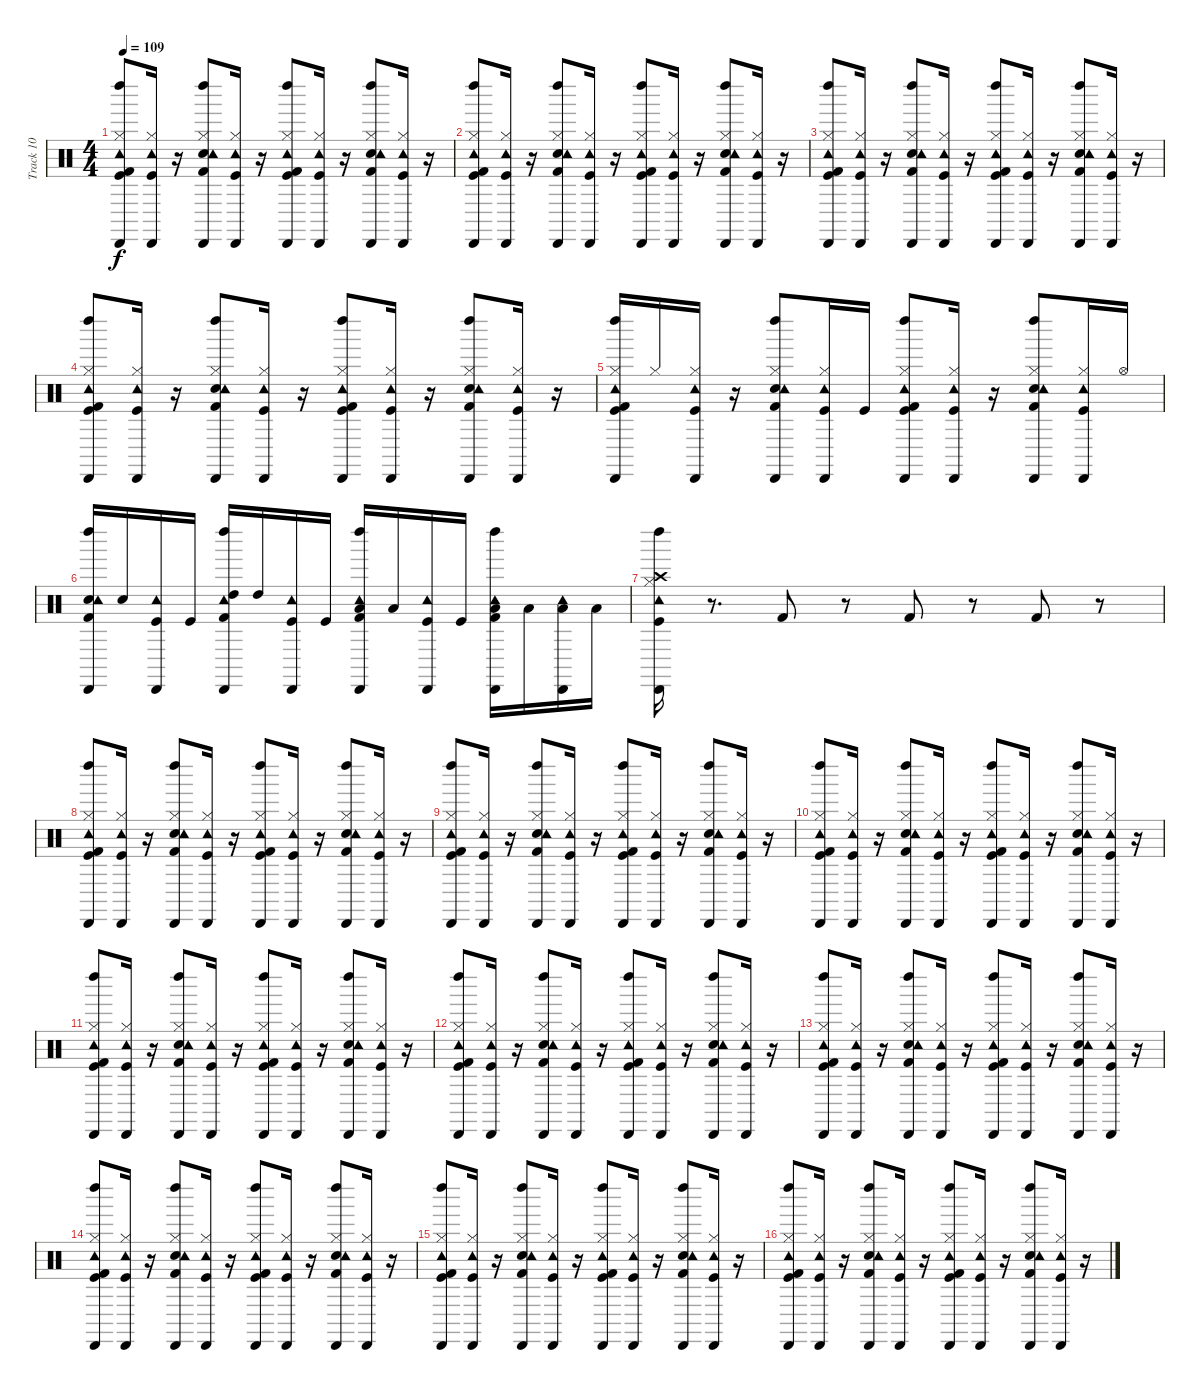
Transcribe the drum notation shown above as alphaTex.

\track ("Track 10" "Track 10") {instrument percussion}
\staff {score}
\articulation defaults
\ts (4 4)
\tempo 109
\clef neutral
\ks c
("Kick (hit)" "Hi-Hat (closed)" "Tambourine (hit)" "Left Maraca (hit)" "Cabasa (hit)" "Kick (hit) 2").8{dy f} ("Kick (hit)" "Hi-Hat (closed)" "Tambourine (hit)" "Cabasa (hit)").16 r.16 ("Snare (hit) 2" "Hi-Hat (closed)" "Tambourine (hit)" "Left Maraca (hit)" "Cabasa (hit)" "Kick (hit) 2").8 ("Kick (hit)" "Hi-Hat (closed)" "Tambourine (hit)" "Cabasa (hit)").16 r.16 ("Kick (hit)" "Hi-Hat (closed)" "Tambourine (hit)" "Left Maraca (hit)" "Cabasa (hit)" "Kick (hit) 2").8 ("Kick (hit)" "Hi-Hat (closed)" "Tambourine (hit)" "Cabasa (hit)").16 r.16 ("Snare (hit) 2" "Hi-Hat (closed)" "Tambourine (hit)" "Left Maraca (hit)" "Cabasa (hit)" "Kick (hit) 2").8 ("Kick (hit)" "Hi-Hat (closed)" "Tambourine (hit)" "Cabasa (hit)").16 r.16 |
("Kick (hit)" "Hi-Hat (closed)" "Tambourine (hit)" "Left Maraca (hit)" "Cabasa (hit)" "Kick (hit) 2").8 ("Kick (hit)" "Hi-Hat (closed)" "Tambourine (hit)" "Cabasa (hit)").16 r.16 ("Snare (hit) 2" "Hi-Hat (closed)" "Tambourine (hit)" "Left Maraca (hit)" "Cabasa (hit)" "Kick (hit) 2").8 ("Kick (hit)" "Hi-Hat (closed)" "Tambourine (hit)" "Cabasa (hit)").16 r.16 ("Kick (hit)" "Hi-Hat (closed)" "Tambourine (hit)" "Left Maraca (hit)" "Cabasa (hit)" "Kick (hit) 2").8 ("Kick (hit)" "Hi-Hat (closed)" "Tambourine (hit)" "Cabasa (hit)").16 r.16 ("Snare (hit) 2" "Hi-Hat (closed)" "Tambourine (hit)" "Left Maraca (hit)" "Cabasa (hit)" "Kick (hit) 2").8 ("Kick (hit)" "Hi-Hat (closed)" "Tambourine (hit)" "Cabasa (hit)").16 r.16 |
("Kick (hit)" "Hi-Hat (closed)" "Tambourine (hit)" "Left Maraca (hit)" "Cabasa (hit)" "Kick (hit) 2").8 ("Kick (hit)" "Hi-Hat (closed)" "Tambourine (hit)" "Cabasa (hit)").16 r.16 ("Snare (hit) 2" "Hi-Hat (closed)" "Tambourine (hit)" "Left Maraca (hit)" "Cabasa (hit)" "Kick (hit) 2").8 ("Kick (hit)" "Hi-Hat (closed)" "Tambourine (hit)" "Cabasa (hit)").16 r.16 ("Kick (hit)" "Hi-Hat (closed)" "Tambourine (hit)" "Left Maraca (hit)" "Cabasa (hit)" "Kick (hit) 2").8 ("Kick (hit)" "Hi-Hat (closed)" "Tambourine (hit)" "Cabasa (hit)").16 r.16 ("Snare (hit) 2" "Hi-Hat (closed)" "Tambourine (hit)" "Left Maraca (hit)" "Cabasa (hit)" "Kick (hit) 2").8 ("Kick (hit)" "Hi-Hat (closed)" "Tambourine (hit)" "Cabasa (hit)").16 r.16 |
("Kick (hit)" "Hi-Hat (closed)" "Tambourine (hit)" "Left Maraca (hit)" "Cabasa (hit)" "Kick (hit) 2").8 ("Kick (hit)" "Hi-Hat (closed)" "Tambourine (hit)" "Cabasa (hit)").16 r.16 ("Snare (hit) 2" "Hi-Hat (closed)" "Tambourine (hit)" "Left Maraca (hit)" "Cabasa (hit)" "Kick (hit) 2").8 ("Kick (hit)" "Hi-Hat (closed)" "Tambourine (hit)" "Cabasa (hit)").16 r.16 ("Kick (hit)" "Hi-Hat (closed)" "Tambourine (hit)" "Left Maraca (hit)" "Cabasa (hit)" "Kick (hit) 2").8 ("Kick (hit)" "Hi-Hat (closed)" "Tambourine (hit)" "Cabasa (hit)").16 r.16 ("Snare (hit) 2" "Hi-Hat (closed)" "Tambourine (hit)" "Left Maraca (hit)" "Cabasa (hit)" "Kick (hit) 2").8 ("Kick (hit)" "Hi-Hat (closed)" "Tambourine (hit)" "Cabasa (hit)").16 r.16 |
("Kick (hit)" "Hi-Hat (closed)" "Tambourine (hit)" "Left Maraca (hit)" "Cabasa (hit)" "Kick (hit) 2").16 "Hi-Hat (closed)".16 ("Kick (hit)" "Hi-Hat (closed)" "Tambourine (hit)" "Cabasa (hit)").16 r.16 ("Snare (hit) 2" "Hi-Hat (closed)" "Tambourine (hit)" "Left Maraca (hit)" "Cabasa (hit)" "Kick (hit) 2").8 ("Kick (hit)" "Hi-Hat (closed)" "Tambourine (hit)" "Cabasa (hit)").16 "Kick (hit)".16 ("Kick (hit)" "Hi-Hat (closed)" "Tambourine (hit)" "Left Maraca (hit)" "Cabasa (hit)" "Kick (hit) 2").8 ("Kick (hit)" "Hi-Hat (closed)" "Tambourine (hit)" "Cabasa (hit)").16 r.16 ("Snare (hit) 2" "Hi-Hat (closed)" "Tambourine (hit)" "Left Maraca (hit)" "Cabasa (hit)" "Kick (hit) 2").8 ("Kick (hit)" "Hi-Hat (closed)" "Tambourine (hit)" "Cabasa (hit)").16 "Hi-Hat (open)".16 |
("Snare (hit) 2" "Tambourine (hit)" "Left Maraca (hit)" "Cabasa (hit)" "Kick (hit) 2").16 "Snare (hit) 2".16 ("Kick (hit)" "Tambourine (hit)" "Cabasa (hit)").16 "Kick (hit)".16 ("High Tom (hit)" "Tambourine (hit)" "Left Maraca (hit)" "Cabasa (hit)" "Kick (hit) 2").16 "High Tom (hit)".16 ("Kick (hit)" "Tambourine (hit)" "Cabasa (hit)").16 "Kick (hit)".16 ("Low Tom (hit)" "Tambourine (hit)" "Left Maraca (hit)" "Cabasa (hit)" "Kick (hit) 2").16 "Low Tom (hit)".16 ("Kick (hit)" "Tambourine (hit)" "Cabasa (hit)").16 "Kick (hit)".16 ("Low Floor Tom (hit)" "Tambourine (hit)" "Left Maraca (hit)" "Cabasa (hit)" "Kick (hit) 2").16 "Low Floor Tom (hit)".16 ("Low Floor Tom (hit)" "Tambourine (hit)" "Cabasa (hit)").16 "Low Floor Tom (hit)".16 |
("Kick (hit)" "Hi-Hat (closed)" "Crash high (hit)" "Tambourine (hit)" "Left Maraca (hit)" "Cabasa (hit)").16 r.8{d} "Kick (hit) 2".8 r.8 "Kick (hit) 2".8 r.8 "Kick (hit) 2".8 r.8 |
("Kick (hit)" "Hi-Hat (closed)" "Tambourine (hit)" "Left Maraca (hit)" "Cabasa (hit)" "Kick (hit) 2").8 ("Kick (hit)" "Hi-Hat (closed)" "Tambourine (hit)" "Cabasa (hit)").16 r.16 ("Snare (hit) 2" "Hi-Hat (closed)" "Tambourine (hit)" "Left Maraca (hit)" "Cabasa (hit)" "Kick (hit) 2").8 ("Kick (hit)" "Hi-Hat (closed)" "Tambourine (hit)" "Cabasa (hit)").16 r.16 ("Kick (hit)" "Hi-Hat (closed)" "Tambourine (hit)" "Left Maraca (hit)" "Cabasa (hit)" "Kick (hit) 2").8 ("Kick (hit)" "Hi-Hat (closed)" "Tambourine (hit)" "Cabasa (hit)").16 r.16 ("Snare (hit) 2" "Hi-Hat (closed)" "Tambourine (hit)" "Left Maraca (hit)" "Cabasa (hit)" "Kick (hit) 2").8 ("Kick (hit)" "Hi-Hat (closed)" "Tambourine (hit)" "Cabasa (hit)").16 r.16 |
("Kick (hit)" "Hi-Hat (closed)" "Tambourine (hit)" "Left Maraca (hit)" "Cabasa (hit)" "Kick (hit) 2").8 ("Kick (hit)" "Hi-Hat (closed)" "Tambourine (hit)" "Cabasa (hit)").16 r.16 ("Snare (hit) 2" "Hi-Hat (closed)" "Tambourine (hit)" "Left Maraca (hit)" "Cabasa (hit)" "Kick (hit) 2").8 ("Kick (hit)" "Hi-Hat (closed)" "Tambourine (hit)" "Cabasa (hit)").16 r.16 ("Kick (hit)" "Hi-Hat (closed)" "Tambourine (hit)" "Left Maraca (hit)" "Cabasa (hit)" "Kick (hit) 2").8 ("Kick (hit)" "Hi-Hat (closed)" "Tambourine (hit)" "Cabasa (hit)").16 r.16 ("Snare (hit) 2" "Hi-Hat (closed)" "Tambourine (hit)" "Left Maraca (hit)" "Cabasa (hit)" "Kick (hit) 2").8 ("Kick (hit)" "Hi-Hat (closed)" "Tambourine (hit)" "Cabasa (hit)").16 r.16 |
("Kick (hit)" "Hi-Hat (closed)" "Tambourine (hit)" "Left Maraca (hit)" "Cabasa (hit)" "Kick (hit) 2").8 ("Kick (hit)" "Hi-Hat (closed)" "Tambourine (hit)" "Cabasa (hit)").16 r.16 ("Snare (hit) 2" "Hi-Hat (closed)" "Tambourine (hit)" "Left Maraca (hit)" "Cabasa (hit)" "Kick (hit) 2").8 ("Kick (hit)" "Hi-Hat (closed)" "Tambourine (hit)" "Cabasa (hit)").16 r.16 ("Kick (hit)" "Hi-Hat (closed)" "Tambourine (hit)" "Left Maraca (hit)" "Cabasa (hit)" "Kick (hit) 2").8 ("Kick (hit)" "Hi-Hat (closed)" "Tambourine (hit)" "Cabasa (hit)").16 r.16 ("Snare (hit) 2" "Hi-Hat (closed)" "Tambourine (hit)" "Left Maraca (hit)" "Cabasa (hit)" "Kick (hit) 2").8 ("Kick (hit)" "Hi-Hat (closed)" "Tambourine (hit)" "Cabasa (hit)").16 r.16 |
("Kick (hit)" "Hi-Hat (closed)" "Tambourine (hit)" "Left Maraca (hit)" "Cabasa (hit)" "Kick (hit) 2").8 ("Kick (hit)" "Hi-Hat (closed)" "Tambourine (hit)" "Cabasa (hit)").16 r.16 ("Snare (hit) 2" "Hi-Hat (closed)" "Tambourine (hit)" "Left Maraca (hit)" "Cabasa (hit)" "Kick (hit) 2").8 ("Kick (hit)" "Hi-Hat (closed)" "Tambourine (hit)" "Cabasa (hit)").16 r.16 ("Kick (hit)" "Hi-Hat (closed)" "Tambourine (hit)" "Left Maraca (hit)" "Cabasa (hit)" "Kick (hit) 2").8 ("Kick (hit)" "Hi-Hat (closed)" "Tambourine (hit)" "Cabasa (hit)").16 r.16 ("Snare (hit) 2" "Hi-Hat (closed)" "Tambourine (hit)" "Left Maraca (hit)" "Cabasa (hit)" "Kick (hit) 2").8 ("Kick (hit)" "Hi-Hat (closed)" "Tambourine (hit)" "Cabasa (hit)").16 r.16 |
("Kick (hit)" "Hi-Hat (closed)" "Tambourine (hit)" "Left Maraca (hit)" "Cabasa (hit)" "Kick (hit) 2").8 ("Kick (hit)" "Hi-Hat (closed)" "Tambourine (hit)" "Cabasa (hit)").16 r.16 ("Snare (hit) 2" "Hi-Hat (closed)" "Tambourine (hit)" "Left Maraca (hit)" "Cabasa (hit)" "Kick (hit) 2").8 ("Kick (hit)" "Hi-Hat (closed)" "Tambourine (hit)" "Cabasa (hit)").16 r.16 ("Kick (hit)" "Hi-Hat (closed)" "Tambourine (hit)" "Left Maraca (hit)" "Cabasa (hit)" "Kick (hit) 2").8 ("Kick (hit)" "Hi-Hat (closed)" "Tambourine (hit)" "Cabasa (hit)").16 r.16 ("Snare (hit) 2" "Hi-Hat (closed)" "Tambourine (hit)" "Left Maraca (hit)" "Cabasa (hit)" "Kick (hit) 2").8 ("Kick (hit)" "Hi-Hat (closed)" "Tambourine (hit)" "Cabasa (hit)").16 r.16 |
("Kick (hit)" "Hi-Hat (closed)" "Tambourine (hit)" "Left Maraca (hit)" "Cabasa (hit)" "Kick (hit) 2").8 ("Kick (hit)" "Hi-Hat (closed)" "Tambourine (hit)" "Cabasa (hit)").16 r.16 ("Snare (hit) 2" "Hi-Hat (closed)" "Tambourine (hit)" "Left Maraca (hit)" "Cabasa (hit)" "Kick (hit) 2").8 ("Kick (hit)" "Hi-Hat (closed)" "Tambourine (hit)" "Cabasa (hit)").16 r.16 ("Kick (hit)" "Hi-Hat (closed)" "Tambourine (hit)" "Left Maraca (hit)" "Cabasa (hit)" "Kick (hit) 2").8 ("Kick (hit)" "Hi-Hat (closed)" "Tambourine (hit)" "Cabasa (hit)").16 r.16 ("Snare (hit) 2" "Hi-Hat (closed)" "Tambourine (hit)" "Left Maraca (hit)" "Cabasa (hit)" "Kick (hit) 2").8 ("Kick (hit)" "Hi-Hat (closed)" "Tambourine (hit)" "Cabasa (hit)").16 r.16 |
("Kick (hit)" "Hi-Hat (closed)" "Tambourine (hit)" "Left Maraca (hit)" "Cabasa (hit)" "Kick (hit) 2").8 ("Kick (hit)" "Hi-Hat (closed)" "Tambourine (hit)" "Cabasa (hit)").16 r.16 ("Snare (hit) 2" "Hi-Hat (closed)" "Tambourine (hit)" "Left Maraca (hit)" "Cabasa (hit)" "Kick (hit) 2").8 ("Kick (hit)" "Hi-Hat (closed)" "Tambourine (hit)" "Cabasa (hit)").16 r.16 ("Kick (hit)" "Hi-Hat (closed)" "Tambourine (hit)" "Left Maraca (hit)" "Cabasa (hit)" "Kick (hit) 2").8 ("Kick (hit)" "Hi-Hat (closed)" "Tambourine (hit)" "Cabasa (hit)").16 r.16 ("Snare (hit) 2" "Hi-Hat (closed)" "Tambourine (hit)" "Left Maraca (hit)" "Cabasa (hit)" "Kick (hit) 2").8 ("Kick (hit)" "Hi-Hat (closed)" "Tambourine (hit)" "Cabasa (hit)").16 r.16 |
("Kick (hit)" "Hi-Hat (closed)" "Tambourine (hit)" "Left Maraca (hit)" "Cabasa (hit)" "Kick (hit) 2").8 ("Kick (hit)" "Hi-Hat (closed)" "Tambourine (hit)" "Cabasa (hit)").16 r.16 ("Snare (hit) 2" "Hi-Hat (closed)" "Tambourine (hit)" "Left Maraca (hit)" "Cabasa (hit)" "Kick (hit) 2").8 ("Kick (hit)" "Hi-Hat (closed)" "Tambourine (hit)" "Cabasa (hit)").16 r.16 ("Kick (hit)" "Hi-Hat (closed)" "Tambourine (hit)" "Left Maraca (hit)" "Cabasa (hit)" "Kick (hit) 2").8 ("Kick (hit)" "Hi-Hat (closed)" "Tambourine (hit)" "Cabasa (hit)").16 r.16 ("Snare (hit) 2" "Hi-Hat (closed)" "Tambourine (hit)" "Left Maraca (hit)" "Cabasa (hit)" "Kick (hit) 2").8 ("Kick (hit)" "Hi-Hat (closed)" "Tambourine (hit)" "Cabasa (hit)").16 r.16 |
("Kick (hit)" "Hi-Hat (closed)" "Tambourine (hit)" "Left Maraca (hit)" "Cabasa (hit)" "Kick (hit) 2").8 ("Kick (hit)" "Hi-Hat (closed)" "Tambourine (hit)" "Cabasa (hit)").16 r.16 ("Snare (hit) 2" "Hi-Hat (closed)" "Tambourine (hit)" "Left Maraca (hit)" "Cabasa (hit)" "Kick (hit) 2").8 ("Kick (hit)" "Hi-Hat (closed)" "Tambourine (hit)" "Cabasa (hit)").16 r.16 ("Kick (hit)" "Hi-Hat (closed)" "Tambourine (hit)" "Left Maraca (hit)" "Cabasa (hit)" "Kick (hit) 2").8 ("Kick (hit)" "Hi-Hat (closed)" "Tambourine (hit)" "Cabasa (hit)").16 r.16 ("Snare (hit) 2" "Hi-Hat (closed)" "Tambourine (hit)" "Left Maraca (hit)" "Cabasa (hit)" "Kick (hit) 2").8 ("Kick (hit)" "Hi-Hat (closed)" "Tambourine (hit)" "Cabasa (hit)").16 r.16
